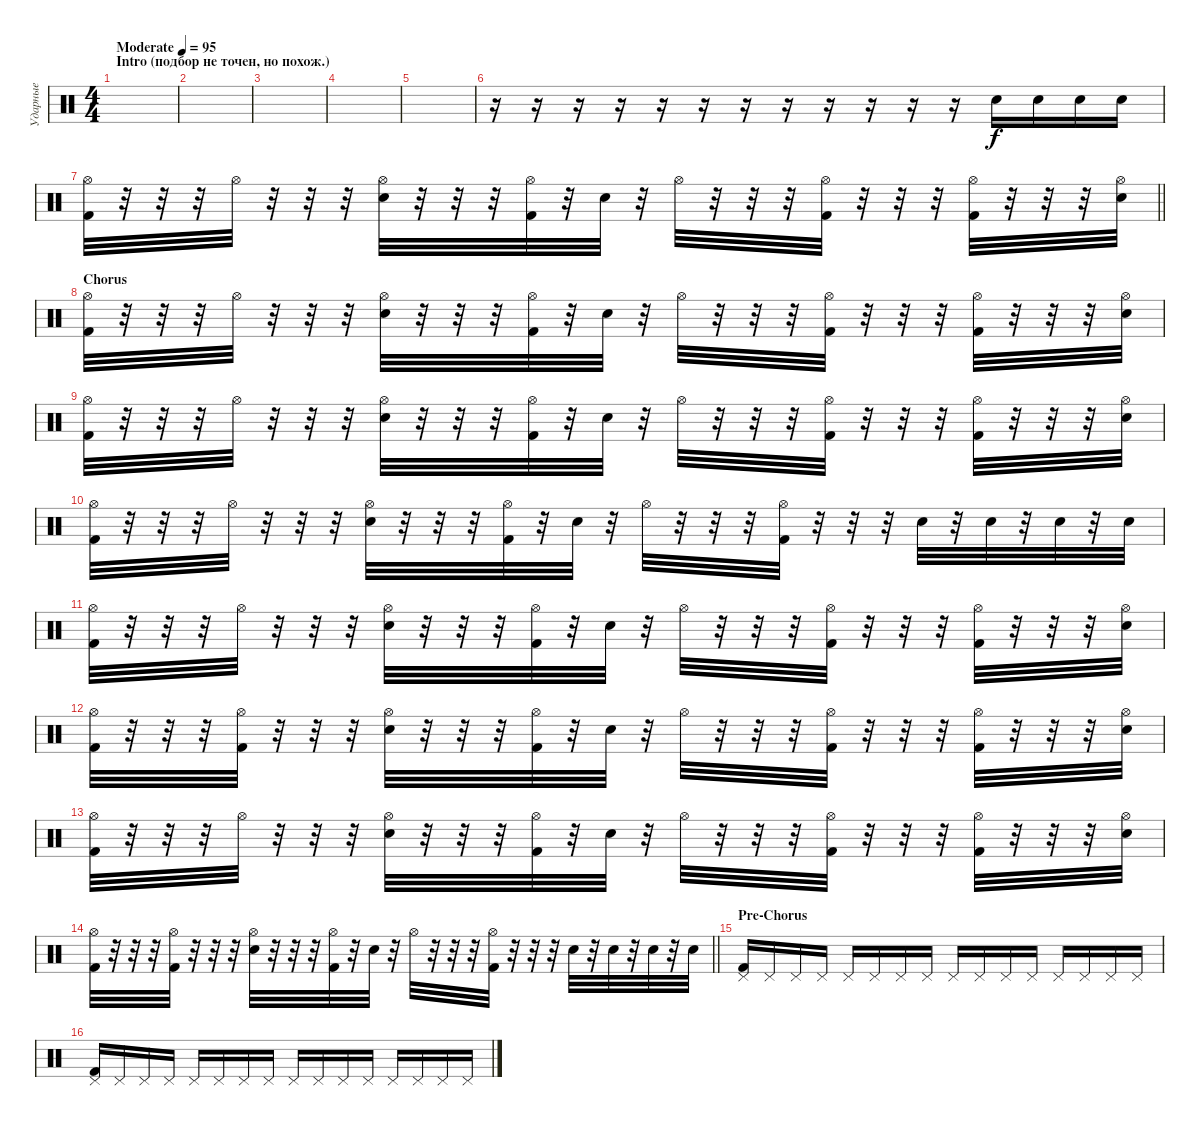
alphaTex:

\track ("Ударные" "Ударные") {instrument percussion}
\staff {score}
\articulation defaults
\ts (4 4)
\section ("" "Intro (подбор не точен, но похож.)")
\tempo (95 "Moderate")
\clef neutral
\ks c
|
|
|
|
|
r.16 r.16 r.16 r.16 r.16 r.16 r.16 r.16 r.16 r.16 r.16 r.16 "Snare (hit) 2".16{volume 13} "Snare (hit) 2".16 "Snare (hit) 2".16 "Snare (hit) 2".16 |
\barLineRight lightlight
("Hi-Hat (open)" "Kick (hit) 2").32 r.32 r.32 r.32 "Hi-Hat (open)".32 r.32 r.32 r.32 ("Hi-Hat (open)" "Snare (hit) 2").32 r.32 r.32 r.32 ("Hi-Hat (open)" "Kick (hit) 2").32 r.32 "Snare (hit) 2".32 r.32 "Hi-Hat (open)".32 r.32 r.32 r.32 ("Hi-Hat (open)" "Kick (hit) 2").32 r.32 r.32 r.32 ("Hi-Hat (open)" "Kick (hit) 2").32 r.32 r.32 r.32 ("Hi-Hat (open)" "Snare (hit) 2").32 |
\section ("" "Chorus")
("Hi-Hat (open)" "Kick (hit) 2").32 r.32 r.32 r.32 "Hi-Hat (open)".32 r.32 r.32 r.32 ("Hi-Hat (open)" "Snare (hit) 2").32 r.32 r.32 r.32 ("Hi-Hat (open)" "Kick (hit) 2").32 r.32 "Snare (hit) 2".32 r.32 "Hi-Hat (open)".32 r.32 r.32 r.32 ("Hi-Hat (open)" "Kick (hit) 2").32 r.32 r.32 r.32 ("Hi-Hat (open)" "Kick (hit) 2").32 r.32 r.32 r.32 ("Hi-Hat (open)" "Snare (hit) 2").32 |
("Hi-Hat (open)" "Kick (hit) 2").32 r.32 r.32 r.32 "Hi-Hat (open)".32 r.32 r.32 r.32 ("Hi-Hat (open)" "Snare (hit) 2").32 r.32 r.32 r.32 ("Hi-Hat (open)" "Kick (hit) 2").32 r.32 "Snare (hit) 2".32 r.32 "Hi-Hat (open)".32 r.32 r.32 r.32 ("Hi-Hat (open)" "Kick (hit) 2").32 r.32 r.32 r.32 ("Hi-Hat (open)" "Kick (hit) 2").32 r.32 r.32 r.32 ("Hi-Hat (open)" "Snare (hit) 2").32 |
("Hi-Hat (open)" "Kick (hit) 2").32 r.32 r.32 r.32 "Hi-Hat (open)".32 r.32 r.32 r.32 ("Hi-Hat (open)" "Snare (hit) 2").32 r.32 r.32 r.32 ("Hi-Hat (open)" "Kick (hit) 2").32 r.32 "Snare (hit) 2".32 r.32 "Hi-Hat (open)".32 r.32 r.32 r.32 ("Hi-Hat (open)" "Kick (hit) 2").32 r.32 r.32 r.32 "Snare (hit) 2".32 r.32 "Snare (hit) 2".32 r.32 "Snare (hit) 2".32 r.32 "Snare (hit) 2".32 |
("Hi-Hat (open)" "Kick (hit) 2").32 r.32 r.32 r.32 "Hi-Hat (open)".32 r.32 r.32 r.32 ("Hi-Hat (open)" "Snare (hit) 2").32 r.32 r.32 r.32 ("Hi-Hat (open)" "Kick (hit) 2").32 r.32 "Snare (hit) 2".32 r.32 "Hi-Hat (open)".32 r.32 r.32 r.32 ("Hi-Hat (open)" "Kick (hit) 2").32 r.32 r.32 r.32 ("Hi-Hat (open)" "Kick (hit) 2").32 r.32 r.32 r.32 ("Hi-Hat (open)" "Snare (hit) 2").32 |
("Hi-Hat (open)" "Kick (hit) 2").32 r.32 r.32 r.32 ("Hi-Hat (open)" "Kick (hit) 2").32 r.32 r.32 r.32 ("Hi-Hat (open)" "Snare (hit) 2").32 r.32 r.32 r.32 ("Hi-Hat (open)" "Kick (hit) 2").32 r.32 "Snare (hit) 2".32 r.32 "Hi-Hat (open)".32 r.32 r.32 r.32 ("Hi-Hat (open)" "Kick (hit) 2").32 r.32 r.32 r.32 ("Hi-Hat (open)" "Kick (hit) 2").32 r.32 r.32 r.32 ("Hi-Hat (open)" "Snare (hit) 2").32 |
("Hi-Hat (open)" "Kick (hit) 2").32 r.32 r.32 r.32 "Hi-Hat (open)".32 r.32 r.32 r.32 ("Hi-Hat (open)" "Snare (hit) 2").32 r.32 r.32 r.32 ("Hi-Hat (open)" "Kick (hit) 2").32 r.32 "Snare (hit) 2".32 r.32 "Hi-Hat (open)".32 r.32 r.32 r.32 ("Hi-Hat (open)" "Kick (hit) 2").32 r.32 r.32 r.32 ("Hi-Hat (open)" "Kick (hit) 2").32 r.32 r.32 r.32 ("Hi-Hat (open)" "Snare (hit) 2").32 |
\barLineRight lightlight
("Hi-Hat (open)" "Kick (hit) 2").32 r.32 r.32 r.32 ("Hi-Hat (open)" "Kick (hit) 2").32 r.32 r.32 r.32 ("Hi-Hat (open)" "Snare (hit) 2").32 r.32 r.32 r.32 ("Hi-Hat (open)" "Kick (hit) 2").32 r.32 "Snare (hit) 2".32 r.32 "Hi-Hat (open)".32 r.32 r.32 r.32 ("Hi-Hat (open)" "Kick (hit) 2").32 r.32 r.32 r.32 "Snare (hit) 2".32 r.32 "Snare (hit) 2".32 r.32 "Snare (hit) 2".32 r.32 "Snare (hit) 2".32 |
\section ("" "Pre-Chorus")
("Pedal Hi-Hat (hit)" "Kick (hit) 2").16 "Pedal Hi-Hat (hit)".16 "Pedal Hi-Hat (hit)".16 "Pedal Hi-Hat (hit)".16 "Pedal Hi-Hat (hit)".16 "Pedal Hi-Hat (hit)".16 "Pedal Hi-Hat (hit)".16 "Pedal Hi-Hat (hit)".16 "Pedal Hi-Hat (hit)".16 "Pedal Hi-Hat (hit)".16 "Pedal Hi-Hat (hit)".16 "Pedal Hi-Hat (hit)".16 "Pedal Hi-Hat (hit)".16 "Pedal Hi-Hat (hit)".16 "Pedal Hi-Hat (hit)".16 "Pedal Hi-Hat (hit)".16 |
("Pedal Hi-Hat (hit)" "Kick (hit) 2").16 "Pedal Hi-Hat (hit)".16 "Pedal Hi-Hat (hit)".16 "Pedal Hi-Hat (hit)".16 "Pedal Hi-Hat (hit)".16 "Pedal Hi-Hat (hit)".16 "Pedal Hi-Hat (hit)".16 "Pedal Hi-Hat (hit)".16 "Pedal Hi-Hat (hit)".16 "Pedal Hi-Hat (hit)".16 "Pedal Hi-Hat (hit)".16 "Pedal Hi-Hat (hit)".16 "Pedal Hi-Hat (hit)".16 "Pedal Hi-Hat (hit)".16 "Pedal Hi-Hat (hit)".16 "Pedal Hi-Hat (hit)".16
